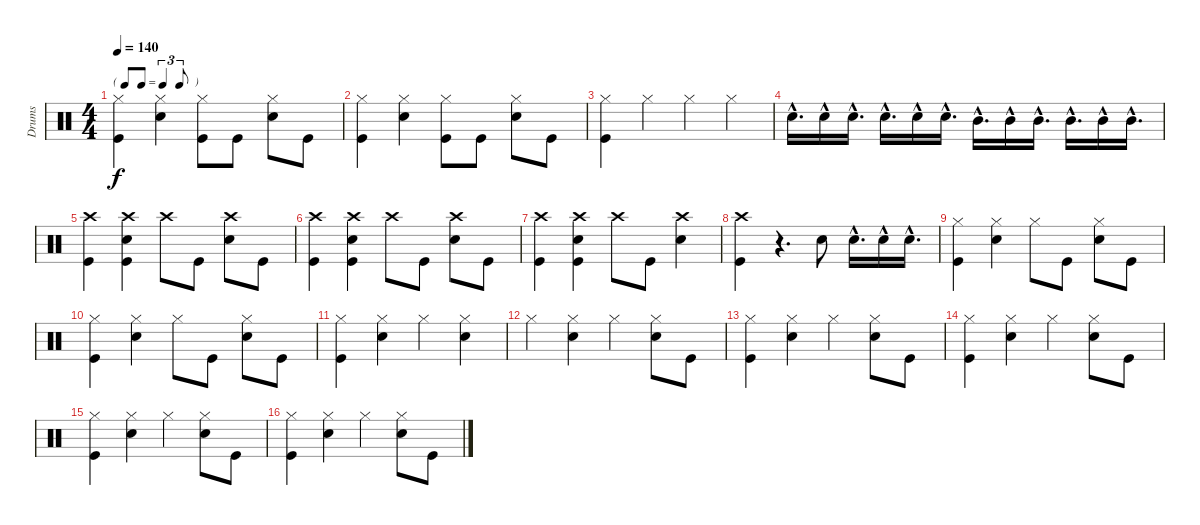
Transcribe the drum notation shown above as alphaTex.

\track ("Drums" "Drums") {instrument percussion}
\staff {score}
\articulation defaults
\ts (4 4)
\tf triplet8th
\tempo 140
\clef neutral
\ks c
("Hi-Hat (closed)" "Kick (hit)").4{dy f} ("Hi-Hat (closed)" "Snare (hit) 2").4 ("Kick (hit)" "Hi-Hat (closed)").8 "Kick (hit)".8 ("Hi-Hat (closed)" "Snare (hit) 2").8 "Kick (hit)".8 |
("Hi-Hat (closed)" "Kick (hit)").4 ("Hi-Hat (closed)" "Snare (hit) 2").4 ("Kick (hit)" "Hi-Hat (closed)").8 "Kick (hit)".8 ("Hi-Hat (closed)" "Snare (hit) 2").8 "Kick (hit)".8 |
("Hi-Hat (closed)" "Kick (hit)").4 "Hi-Hat (closed)".4 "Hi-Hat (closed)".4 "Hi-Hat (closed)".4 |
"Snare (hit) 2"{hac}.16{d} "Snare (hit) 2"{hac}.16 "Snare (hit) 2"{hac}.16{d} "Snare (hit) 2"{hac}.16{d} "Snare (hit) 2"{hac}.16 "Snare (hit) 2"{hac}.16{d} "Mid Tom (hit)"{hac}.16{d} "Mid Tom (hit)"{hac}.16 "Mid Tom (hit)"{hac}.16{d} "Mid Tom (hit)"{hac}.16{d} "Mid Tom (hit)"{hac}.16 "Mid Tom (hit)"{hac}.16{d} |
("Crash high (hit)" "Kick (hit)").4 ("Crash high (hit)" "Snare (hit) 2" "Kick (hit)").4 "Crash high (hit)".8 "Kick (hit)".8 ("Crash high (hit)" "Snare (hit) 2").8 "Kick (hit)".8 |
("Kick (hit)" "Crash high (hit)").4 ("Crash high (hit)" "Snare (hit) 2" "Kick (hit)").4 "Crash high (hit)".8 "Kick (hit)".8 ("Crash high (hit)" "Snare (hit) 2").8 "Kick (hit)".8 |
("Crash high (hit)" "Kick (hit)").4 ("Crash high (hit)" "Snare (hit) 2" "Kick (hit)").4 "Crash high (hit)".8 "Kick (hit)".8 ("Crash high (hit)" "Snare (hit) 2").4 |
("Crash high (hit)" "Kick (hit)").4 r.4{d} "Snare (hit) 2".8 "Snare (hit) 2"{hac}.16{d} "Snare (hit) 2"{hac}.16 "Snare (hit) 2"{hac}.16{d} |
("Hi-Hat (closed)" "Kick (hit)").4 ("Hi-Hat (closed)" "Snare (hit) 2").4 "Hi-Hat (closed)".8 "Kick (hit)".8 ("Hi-Hat (closed)" "Snare (hit) 2").8 "Kick (hit)".8 |
("Kick (hit)" "Hi-Hat (closed)").4 ("Hi-Hat (closed)" "Snare (hit) 2").4 "Hi-Hat (closed)".8 "Kick (hit)".8 ("Hi-Hat (closed)" "Snare (hit) 2").8 "Kick (hit)".8 |
("Hi-Hat (closed)" "Kick (hit)").4 ("Hi-Hat (closed)" "Snare (hit) 2").4 "Hi-Hat (closed)".4 ("Hi-Hat (closed)" "Snare (hit) 2").4 |
"Hi-Hat (closed)".4 ("Hi-Hat (closed)" "Snare (hit) 2").4 "Hi-Hat (closed)".4 ("Snare (hit) 2" "Hi-Hat (closed)").8 "Kick (hit)".8 |
("Hi-Hat (closed)" "Kick (hit)").4 ("Hi-Hat (closed)" "Snare (hit) 2").4 "Hi-Hat (closed)".4 ("Hi-Hat (closed)" "Snare (hit) 2").8 "Kick (hit)".8 |
("Kick (hit)" "Hi-Hat (closed)").4 ("Hi-Hat (closed)" "Snare (hit) 2").4 "Hi-Hat (closed)".4 ("Hi-Hat (closed)" "Snare (hit) 2").8 "Kick (hit)".8 |
("Kick (hit)" "Hi-Hat (closed)").4 ("Hi-Hat (closed)" "Snare (hit) 2").4 "Hi-Hat (closed)".4 ("Hi-Hat (closed)" "Snare (hit) 2").8 "Kick (hit)".8 |
("Kick (hit)" "Hi-Hat (closed)").4 ("Hi-Hat (closed)" "Snare (hit) 2").4 "Hi-Hat (closed)".4 ("Hi-Hat (closed)" "Snare (hit) 2").8 "Kick (hit)".8
